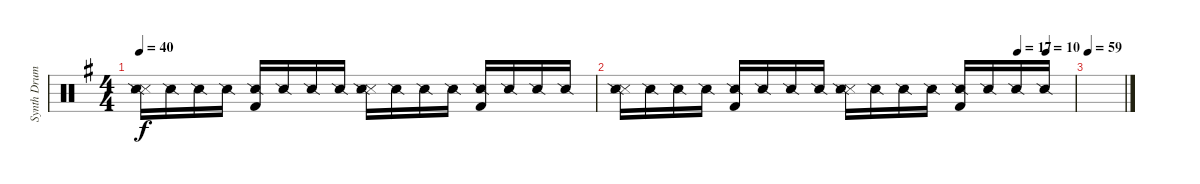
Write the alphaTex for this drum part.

\track ("Synth Drums" "Synth Drum") {instrument percussion}
\staff {score}
\articulation defaults
\ts (4 4)
\tempo 40
\clef neutral
\ks g
("Metronome (hit)" "Snare (side stick) 2" "Snare (side stick) 3").16{dy f} "Snare (side stick) 2".16 "Snare (side stick) 2".16 "Snare (side stick) 2".16 ("Kick (hit) 2" "Snare (side stick) 2").16 "Snare (side stick) 2".16 "Snare (side stick) 2".16 "Snare (side stick) 2".16 ("Metronome (hit)" "Snare (side stick) 2" "Snare (side stick) 3").16 "Snare (side stick) 2".16 "Snare (side stick) 2".16 "Snare (side stick) 2".16 ("Kick (hit) 2" "Snare (side stick) 2").16 "Snare (side stick) 2".16 "Snare (side stick) 2".16 "Snare (side stick) 2".16 |
\tempo (17 0.875)
\tempo (10 0.9375)
("Metronome (hit)" "Snare (side stick) 2" "Snare (side stick) 3").16 "Snare (side stick) 2".16 "Snare (side stick) 2".16 "Snare (side stick) 2".16 ("Kick (hit) 2" "Snare (side stick) 2").16 "Snare (side stick) 2".16 "Snare (side stick) 2".16 "Snare (side stick) 2".16 ("Metronome (hit)" "Snare (side stick) 2" "Snare (side stick) 3").16 "Snare (side stick) 2".16 "Snare (side stick) 2".16 "Snare (side stick) 2".16 ("Kick (hit) 2" "Snare (side stick) 2").16 "Snare (side stick) 2".16 "Snare (side stick) 2".16 "Snare (side stick) 2".16 |
\tempo 59
